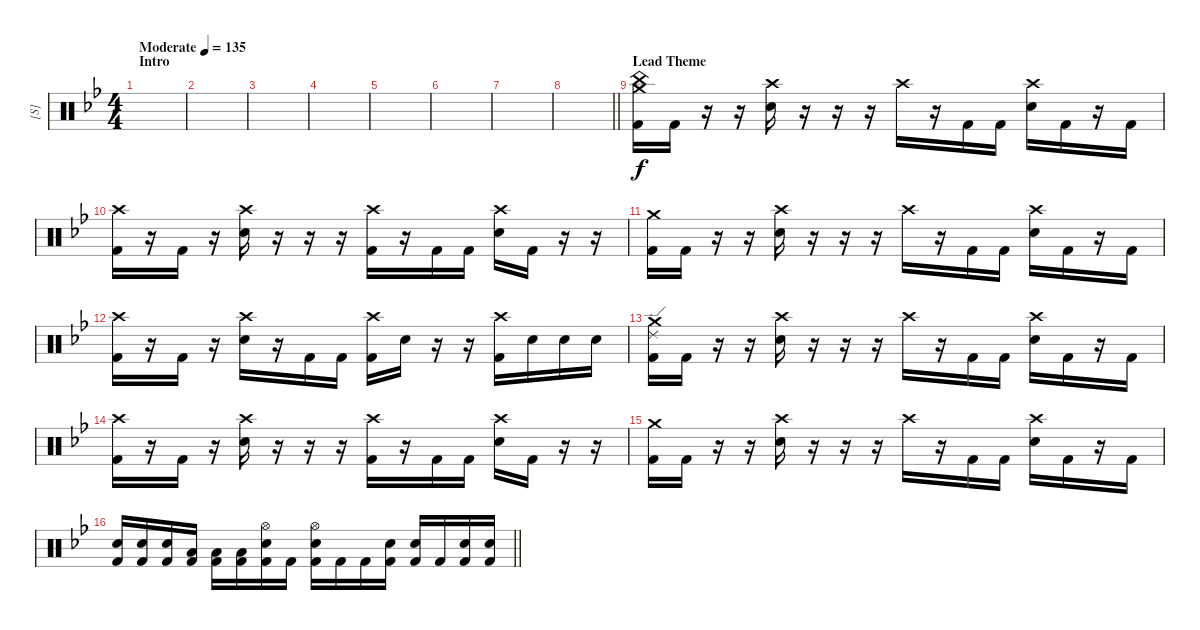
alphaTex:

\track ("[S]" "[S]") {instrument percussion}
\staff {score}
\articulation defaults
\ts (4 4)
\section ("" "Intro")
\tempo (135 "Moderate")
\clef neutral
\ks gminor
|
|
|
|
|
|
|
\barLineRight lightlight
|
\section ("" "Lead Theme")
("Crash medium (hit)" "China (hit)" "Kick (hit) 2").16 "Kick (hit) 2".16 r.16 r.16 ("Crash high (hit)" "Electric Snare (hit)").16 r.16 r.16 r.16 "Crash high (hit)".16 r.16 "Kick (hit) 2".16 "Kick (hit) 2".16 ("Crash high (hit)" "Electric Snare (hit)").16 "Kick (hit) 2".16 r.16 "Kick (hit) 2".16 |
("Crash high (hit)" "Kick (hit) 2").16 r.16 "Kick (hit) 2".16 r.16 ("Crash high (hit)" "Electric Snare (hit)").16 r.16 r.16 r.16 ("Crash high (hit)" "Kick (hit) 2").16 r.16 "Kick (hit) 2".16 "Kick (hit) 2".16 ("Crash high (hit)" "Electric Snare (hit)").16 "Kick (hit) 2".16 r.16 r.16 |
("Crash medium (hit)" "Kick (hit) 2").16 "Kick (hit) 2".16 r.16 r.16 ("Crash high (hit)" "Electric Snare (hit)").16 r.16 r.16 r.16 "Crash high (hit)".16 r.16 "Kick (hit) 2".16 "Kick (hit) 2".16 ("Crash high (hit)" "Electric Snare (hit)").16 "Kick (hit) 2".16 r.16 "Kick (hit) 2".16 |
("Crash high (hit)" "Kick (hit) 2").16 r.16 "Kick (hit) 2".16 r.16 ("Crash high (hit)" "Electric Snare (hit)").16 r.16 "Kick (hit) 2".16 "Kick (hit) 2".16 ("Crash high (hit)" "Kick (hit) 2").16 "Electric Snare (hit)".16 r.16 r.16 ("Crash high (hit)" "Kick (hit) 2").16 "Electric Snare (hit)".16 "Electric Snare (hit)".16 "Electric Snare (hit)".16 |
("Crash medium (hit)" "Ride (edge) 2" "Kick (hit) 2").16 "Kick (hit) 2".16 r.16 r.16 ("Crash high (hit)" "Electric Snare (hit)").16 r.16 r.16 r.16 "Crash high (hit)".16 r.16 "Kick (hit) 2".16 "Kick (hit) 2".16 ("Crash high (hit)" "Electric Snare (hit)").16 "Kick (hit) 2".16 r.16 "Kick (hit) 2".16 |
("Crash high (hit)" "Kick (hit) 2").16 r.16 "Kick (hit) 2".16 r.16 ("Crash high (hit)" "Electric Snare (hit)").16 r.16 r.16 r.16 ("Crash high (hit)" "Kick (hit) 2").16 r.16 "Kick (hit) 2".16 "Kick (hit) 2".16 ("Crash high (hit)" "Electric Snare (hit)").16 "Kick (hit) 2".16 r.16 r.16 |
("Crash medium (hit)" "Kick (hit) 2").16 "Kick (hit) 2".16 r.16 r.16 ("Crash high (hit)" "Electric Snare (hit)").16 r.16 r.16 r.16 "Crash high (hit)".16 r.16 "Kick (hit) 2".16 "Kick (hit) 2".16 ("Crash high (hit)" "Electric Snare (hit)").16 "Kick (hit) 2".16 r.16 "Kick (hit) 2".16 |
\barLineRight lightlight
("Electric Snare (hit)" "Kick (hit) 2").16 ("Electric Snare (hit)" "Kick (hit) 2").16 ("Electric Snare (hit)" "Kick (hit) 2").16 ("Low Tom (hit)" "Kick (hit) 2").16 ("Low Tom (hit)" "Kick (hit) 2").16 ("Low Tom (hit)" "Kick (hit) 2").16 ("Hi-Hat (open)" "Electric Snare (hit)" "Kick (hit) 2").16 "Kick (hit) 2".16 ("Hi-Hat (open)" "Electric Snare (hit)" "Kick (hit) 2").16 "Kick (hit) 2".16 "Kick (hit) 2".16 ("Electric Snare (hit)" "Kick (hit) 2").16 ("Electric Snare (hit)" "Kick (hit) 2").16 "Kick (hit) 2".16 ("Electric Snare (hit)" "Kick (hit) 2").16 ("Electric Snare (hit)" "Kick (hit) 2").16
